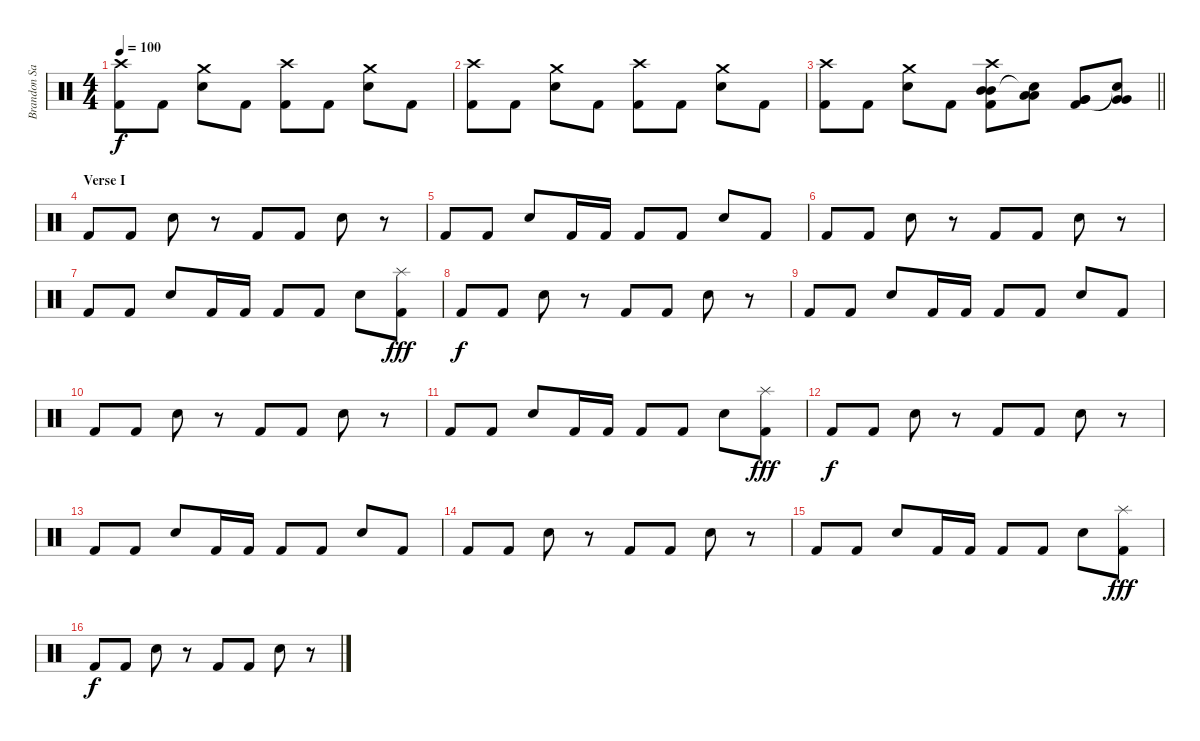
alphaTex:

\track ("Brandon Saller" "Brandon Sa") {instrument percussion}
\staff {score}
\articulation defaults
\ts (4 4)
\tempo 100
\clef neutral
\ks c
("Crash high (hit)" "Kick (hit) 2").8{dy f} "Kick (hit) 2".8 ("Crash medium (hit)" "Electric Snare (hit)").8 "Kick (hit) 2".8 ("Crash high (hit)" "Kick (hit) 2").8 "Kick (hit) 2".8 ("Crash medium (hit)" "Electric Snare (hit)").8 "Kick (hit) 2".8 |
("Crash high (hit)" "Kick (hit) 2").8 "Kick (hit) 2".8 ("Crash medium (hit)" "Electric Snare (hit)").8 "Kick (hit) 2".8 ("Crash high (hit)" "Kick (hit) 2").8 "Kick (hit) 2".8 ("Crash medium (hit)" "Electric Snare (hit)").8 "Kick (hit) 2".8 |
\barLineRight lightlight
("Crash high (hit)" "Kick (hit) 2").8 "Kick (hit) 2".8 ("Crash medium (hit)" "Electric Snare (hit)").8 "Kick (hit) 2".8 ("Crash high (hit)" "Mid Tom (hit)" "Mid Tom (hit)" "Kick (hit) 2").8 ("Low Tom (hit)" "Low Tom (hit)" "Snare (hit)"{t}).8 ("Very Low Tom (hit)" "Very Low Tom (hit)" "Kick (hit) 2").8 ("Very Low Tom (hit)" "Very Low Tom (hit)" "Snare (hit)"{t}).8 |
\section ("" "Verse I")
"Kick (hit) 2".8 "Kick (hit) 2".8 "Electric Snare (hit)".8 r.8 "Kick (hit) 2".8 "Kick (hit) 2".8 "Electric Snare (hit)".8 r.8 |
"Kick (hit) 2".8 "Kick (hit) 2".8 "Electric Snare (hit)".8 "Kick (hit) 2".16 "Kick (hit) 2".16 "Kick (hit) 2".8 "Kick (hit) 2".8 "Electric Snare (hit)".8 "Kick (hit) 2".8 |
"Kick (hit) 2".8 "Kick (hit) 2".8 "Electric Snare (hit)".8 r.8 "Kick (hit) 2".8 "Kick (hit) 2".8 "Electric Snare (hit)".8 r.8 |
"Kick (hit) 2".8 "Kick (hit) 2".8 "Electric Snare (hit)".8 "Kick (hit) 2".16 "Kick (hit) 2".16 "Kick (hit) 2".8 "Kick (hit) 2".8 "Electric Snare (hit)".8 ("Splash (hit)" "Kick (hit) 2").8{dy fff} |
"Kick (hit) 2".8{dy f} "Kick (hit) 2".8 "Electric Snare (hit)".8 r.8 "Kick (hit) 2".8 "Kick (hit) 2".8 "Electric Snare (hit)".8 r.8 |
"Kick (hit) 2".8 "Kick (hit) 2".8 "Electric Snare (hit)".8 "Kick (hit) 2".16 "Kick (hit) 2".16 "Kick (hit) 2".8 "Kick (hit) 2".8 "Electric Snare (hit)".8 "Kick (hit) 2".8 |
"Kick (hit) 2".8 "Kick (hit) 2".8 "Electric Snare (hit)".8 r.8 "Kick (hit) 2".8 "Kick (hit) 2".8 "Electric Snare (hit)".8 r.8 |
"Kick (hit) 2".8 "Kick (hit) 2".8 "Electric Snare (hit)".8 "Kick (hit) 2".16 "Kick (hit) 2".16 "Kick (hit) 2".8 "Kick (hit) 2".8 "Electric Snare (hit)".8 ("Splash (hit)" "Kick (hit) 2").8{dy fff} |
"Kick (hit) 2".8{dy f} "Kick (hit) 2".8 "Electric Snare (hit)".8 r.8 "Kick (hit) 2".8 "Kick (hit) 2".8 "Electric Snare (hit)".8 r.8 |
"Kick (hit) 2".8 "Kick (hit) 2".8 "Electric Snare (hit)".8 "Kick (hit) 2".16 "Kick (hit) 2".16 "Kick (hit) 2".8 "Kick (hit) 2".8 "Electric Snare (hit)".8 "Kick (hit) 2".8 |
"Kick (hit) 2".8 "Kick (hit) 2".8 "Electric Snare (hit)".8 r.8 "Kick (hit) 2".8 "Kick (hit) 2".8 "Electric Snare (hit)".8 r.8 |
"Kick (hit) 2".8 "Kick (hit) 2".8 "Electric Snare (hit)".8 "Kick (hit) 2".16 "Kick (hit) 2".16 "Kick (hit) 2".8 "Kick (hit) 2".8 "Electric Snare (hit)".8 ("Splash (hit)" "Kick (hit) 2").8{dy fff} |
"Kick (hit) 2".8{dy f} "Kick (hit) 2".8 "Electric Snare (hit)".8 r.8 "Kick (hit) 2".8 "Kick (hit) 2".8 "Electric Snare (hit)".8 r.8
